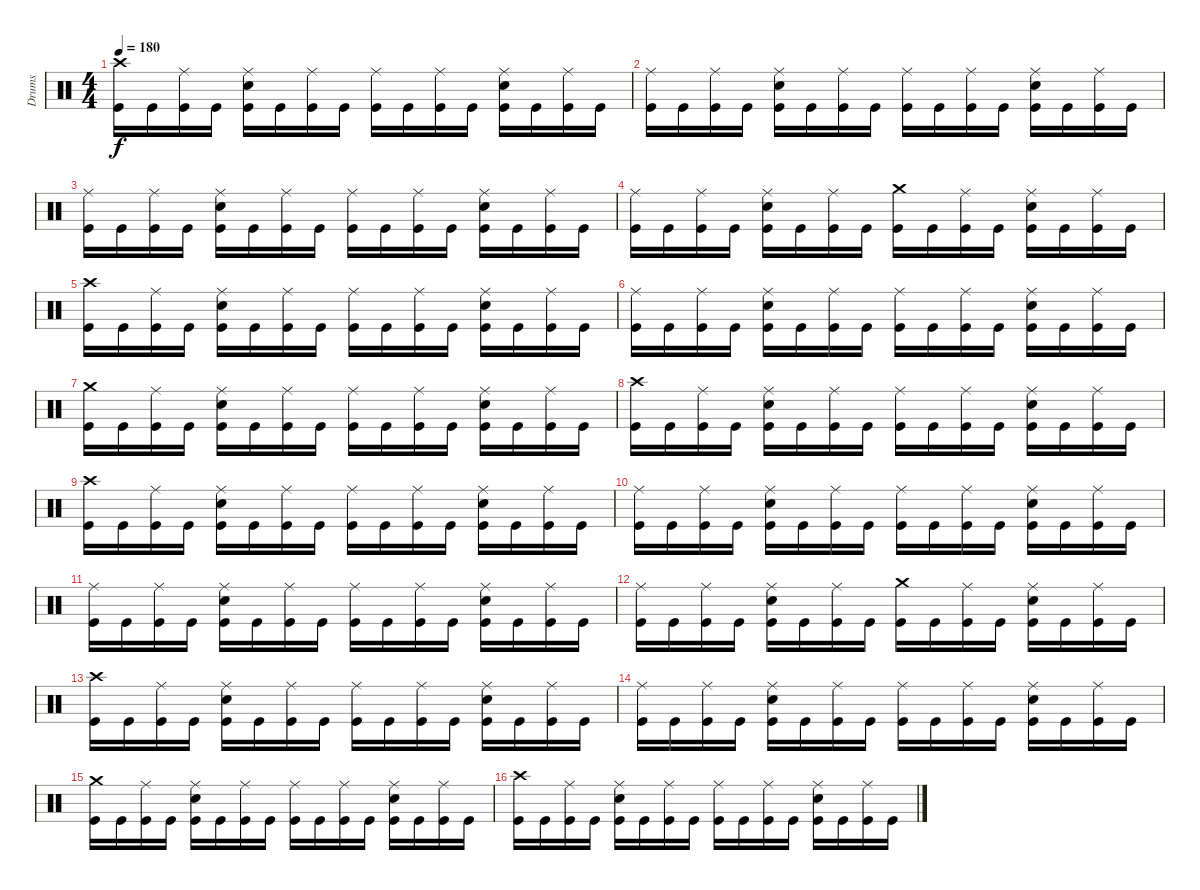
\track ("Drums" "Drums") {instrument percussion}
\staff {score}
\articulation defaults
\ts (4 4)
\tempo 180
\clef neutral
\ks c
("Crash high (hit)" "Kick (hit)").16{dy f} "Kick (hit)".16 ("Ride (middle)" "Kick (hit)").16 "Kick (hit)".16 ("Ride (middle)" "Snare (hit) 2" "Kick (hit)").16 "Kick (hit)".16 ("Ride (middle)" "Kick (hit)").16 "Kick (hit)".16 ("Ride (middle)" "Kick (hit)").16 "Kick (hit)".16 ("Ride (middle)" "Kick (hit)").16 "Kick (hit)".16 ("Ride (middle)" "Snare (hit) 2" "Kick (hit)").16 "Kick (hit)".16 ("Ride (middle)" "Kick (hit)").16 "Kick (hit)".16 |
("Ride (middle)" "Kick (hit)").16 "Kick (hit)".16 ("Ride (middle)" "Kick (hit)").16 "Kick (hit)".16 ("Ride (middle)" "Snare (hit) 2" "Kick (hit)").16 "Kick (hit)".16 ("Ride (middle)" "Kick (hit)").16 "Kick (hit)".16 ("Ride (middle)" "Kick (hit)").16 "Kick (hit)".16 ("Ride (middle)" "Kick (hit)").16 "Kick (hit)".16 ("Ride (middle)" "Snare (hit) 2" "Kick (hit)").16 "Kick (hit)".16 ("Ride (middle)" "Kick (hit)").16 "Kick (hit)".16 |
("Ride (middle)" "Kick (hit)").16 "Kick (hit)".16 ("Ride (middle)" "Kick (hit)").16 "Kick (hit)".16 ("Ride (middle)" "Snare (hit) 2" "Kick (hit)").16 "Kick (hit)".16 ("Ride (middle)" "Kick (hit)").16 "Kick (hit)".16 ("Ride (middle)" "Kick (hit)").16 "Kick (hit)".16 ("Ride (middle)" "Kick (hit)").16 "Kick (hit)".16 ("Ride (middle)" "Snare (hit) 2" "Kick (hit)").16 "Kick (hit)".16 ("Ride (middle)" "Kick (hit)").16 "Kick (hit)".16 |
("Ride (middle)" "Kick (hit)").16 "Kick (hit)".16 ("Ride (middle)" "Kick (hit)").16 "Kick (hit)".16 ("Ride (middle)" "Snare (hit) 2" "Kick (hit)").16 "Kick (hit)".16 ("Ride (middle)" "Kick (hit)").16 "Kick (hit)".16 ("Crash medium (hit)" "Kick (hit)").16 "Kick (hit)".16 ("Ride (middle)" "Kick (hit)").16 "Kick (hit)".16 ("Ride (middle)" "Snare (hit) 2" "Kick (hit)").16 "Kick (hit)".16 ("Ride (middle)" "Kick (hit)").16 "Kick (hit)".16 |
("Crash high (hit)" "Kick (hit)").16 "Kick (hit)".16 ("Ride (middle)" "Kick (hit)").16 "Kick (hit)".16 ("Ride (middle)" "Snare (hit) 2" "Kick (hit)").16 "Kick (hit)".16 ("Ride (middle)" "Kick (hit)").16 "Kick (hit)".16 ("Ride (middle)" "Kick (hit)").16 "Kick (hit)".16 ("Ride (middle)" "Kick (hit)").16 "Kick (hit)".16 ("Ride (middle)" "Snare (hit) 2" "Kick (hit)").16 "Kick (hit)".16 ("Ride (middle)" "Kick (hit)").16 "Kick (hit)".16 |
("Ride (middle)" "Kick (hit)").16 "Kick (hit)".16 ("Ride (middle)" "Kick (hit)").16 "Kick (hit)".16 ("Ride (middle)" "Snare (hit) 2" "Kick (hit)").16 "Kick (hit)".16 ("Ride (middle)" "Kick (hit)").16 "Kick (hit)".16 ("Ride (middle)" "Kick (hit)").16 "Kick (hit)".16 ("Ride (middle)" "Kick (hit)").16 "Kick (hit)".16 ("Ride (middle)" "Snare (hit) 2" "Kick (hit)").16 "Kick (hit)".16 ("Ride (middle)" "Kick (hit)").16 "Kick (hit)".16 |
("Crash medium (hit)" "Kick (hit)").16 "Kick (hit)".16 ("Ride (middle)" "Kick (hit)").16 "Kick (hit)".16 ("Ride (middle)" "Snare (hit) 2" "Kick (hit)").16 "Kick (hit)".16 ("Ride (middle)" "Kick (hit)").16 "Kick (hit)".16 ("Ride (middle)" "Kick (hit)").16 "Kick (hit)".16 ("Ride (middle)" "Kick (hit)").16 "Kick (hit)".16 ("Ride (middle)" "Snare (hit) 2" "Kick (hit)").16 "Kick (hit)".16 ("Ride (middle)" "Kick (hit)").16 "Kick (hit)".16 |
("Crash high (hit)" "Kick (hit)").16 "Kick (hit)".16 ("Ride (middle)" "Kick (hit)").16 "Kick (hit)".16 ("Ride (middle)" "Snare (hit) 2" "Kick (hit)").16 "Kick (hit)".16 ("Ride (middle)" "Kick (hit)").16 "Kick (hit)".16 ("Ride (middle)" "Kick (hit)").16 "Kick (hit)".16 ("Ride (middle)" "Kick (hit)").16 "Kick (hit)".16 ("Ride (middle)" "Snare (hit) 2" "Kick (hit)").16 "Kick (hit)".16 ("Ride (middle)" "Kick (hit)").16 "Kick (hit)".16 |
("Crash high (hit)" "Kick (hit)").16 "Kick (hit)".16 ("Ride (middle)" "Kick (hit)").16 "Kick (hit)".16 ("Ride (middle)" "Snare (hit) 2" "Kick (hit)").16 "Kick (hit)".16 ("Ride (middle)" "Kick (hit)").16 "Kick (hit)".16 ("Ride (middle)" "Kick (hit)").16 "Kick (hit)".16 ("Ride (middle)" "Kick (hit)").16 "Kick (hit)".16 ("Ride (middle)" "Snare (hit) 2" "Kick (hit)").16 "Kick (hit)".16 ("Ride (middle)" "Kick (hit)").16 "Kick (hit)".16 |
("Ride (middle)" "Kick (hit)").16 "Kick (hit)".16 ("Ride (middle)" "Kick (hit)").16 "Kick (hit)".16 ("Ride (middle)" "Snare (hit) 2" "Kick (hit)").16 "Kick (hit)".16 ("Ride (middle)" "Kick (hit)").16 "Kick (hit)".16 ("Ride (middle)" "Kick (hit)").16 "Kick (hit)".16 ("Ride (middle)" "Kick (hit)").16 "Kick (hit)".16 ("Ride (middle)" "Snare (hit) 2" "Kick (hit)").16 "Kick (hit)".16 ("Ride (middle)" "Kick (hit)").16 "Kick (hit)".16 |
("Ride (middle)" "Kick (hit)").16 "Kick (hit)".16 ("Ride (middle)" "Kick (hit)").16 "Kick (hit)".16 ("Ride (middle)" "Snare (hit) 2" "Kick (hit)").16 "Kick (hit)".16 ("Ride (middle)" "Kick (hit)").16 "Kick (hit)".16 ("Ride (middle)" "Kick (hit)").16 "Kick (hit)".16 ("Ride (middle)" "Kick (hit)").16 "Kick (hit)".16 ("Ride (middle)" "Snare (hit) 2" "Kick (hit)").16 "Kick (hit)".16 ("Ride (middle)" "Kick (hit)").16 "Kick (hit)".16 |
("Ride (middle)" "Kick (hit)").16 "Kick (hit)".16 ("Ride (middle)" "Kick (hit)").16 "Kick (hit)".16 ("Ride (middle)" "Snare (hit) 2" "Kick (hit)").16 "Kick (hit)".16 ("Ride (middle)" "Kick (hit)").16 "Kick (hit)".16 ("Crash medium (hit)" "Kick (hit)").16 "Kick (hit)".16 ("Ride (middle)" "Kick (hit)").16 "Kick (hit)".16 ("Ride (middle)" "Snare (hit) 2" "Kick (hit)").16 "Kick (hit)".16 ("Ride (middle)" "Kick (hit)").16 "Kick (hit)".16 |
("Crash high (hit)" "Kick (hit)").16 "Kick (hit)".16 ("Ride (middle)" "Kick (hit)").16 "Kick (hit)".16 ("Ride (middle)" "Snare (hit) 2" "Kick (hit)").16 "Kick (hit)".16 ("Ride (middle)" "Kick (hit)").16 "Kick (hit)".16 ("Ride (middle)" "Kick (hit)").16 "Kick (hit)".16 ("Ride (middle)" "Kick (hit)").16 "Kick (hit)".16 ("Ride (middle)" "Snare (hit) 2" "Kick (hit)").16 "Kick (hit)".16 ("Ride (middle)" "Kick (hit)").16 "Kick (hit)".16 |
("Ride (middle)" "Kick (hit)").16 "Kick (hit)".16 ("Ride (middle)" "Kick (hit)").16 "Kick (hit)".16 ("Ride (middle)" "Snare (hit) 2" "Kick (hit)").16 "Kick (hit)".16 ("Ride (middle)" "Kick (hit)").16 "Kick (hit)".16 ("Ride (middle)" "Kick (hit)").16 "Kick (hit)".16 ("Ride (middle)" "Kick (hit)").16 "Kick (hit)".16 ("Ride (middle)" "Snare (hit) 2" "Kick (hit)").16 "Kick (hit)".16 ("Ride (middle)" "Kick (hit)").16 "Kick (hit)".16 |
("Crash medium (hit)" "Kick (hit)").16 "Kick (hit)".16 ("Ride (middle)" "Kick (hit)").16 "Kick (hit)".16 ("Ride (middle)" "Snare (hit) 2" "Kick (hit)").16 "Kick (hit)".16 ("Ride (middle)" "Kick (hit)").16 "Kick (hit)".16 ("Ride (middle)" "Kick (hit)").16 "Kick (hit)".16 ("Ride (middle)" "Kick (hit)").16 "Kick (hit)".16 ("Ride (middle)" "Snare (hit) 2" "Kick (hit)").16 "Kick (hit)".16 ("Ride (middle)" "Kick (hit)").16 "Kick (hit)".16 |
("Crash high (hit)" "Kick (hit)").16 "Kick (hit)".16 ("Ride (middle)" "Kick (hit)").16 "Kick (hit)".16 ("Ride (middle)" "Snare (hit) 2" "Kick (hit)").16 "Kick (hit)".16 ("Ride (middle)" "Kick (hit)").16 "Kick (hit)".16 ("Ride (middle)" "Kick (hit)").16 "Kick (hit)".16 ("Ride (middle)" "Kick (hit)").16 "Kick (hit)".16 ("Ride (middle)" "Snare (hit) 2" "Kick (hit)").16 "Kick (hit)".16 ("Ride (middle)" "Kick (hit)").16 "Kick (hit)".16
